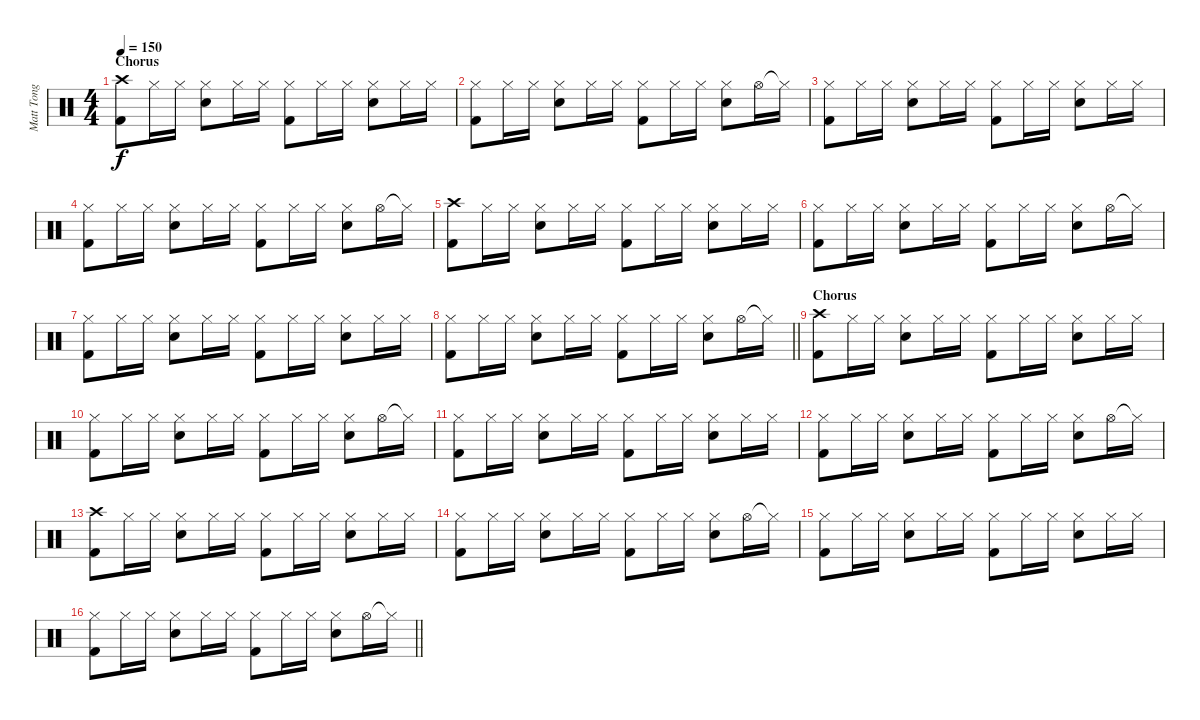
\track ("Matt Tong" "Matt Tong") {instrument percussion}
\staff {score}
\articulation defaults
\ts (4 4)
\section ("" "Chorus")
\tempo 150
\clef neutral
\ks c
("Crash high (hit)" "Kick (hit) 2").8{dy f} "Hi-Hat (closed)".16 "Hi-Hat (closed)".16 ("Hi-Hat (closed)" "Electric Snare (hit)").8 "Hi-Hat (closed)".16 "Hi-Hat (closed)".16 ("Hi-Hat (closed)" "Kick (hit) 2").8 "Hi-Hat (closed)".16 "Hi-Hat (closed)".16 ("Hi-Hat (closed)" "Electric Snare (hit)").8 "Hi-Hat (closed)".16 "Hi-Hat (closed)".16 |
("Hi-Hat (closed)" "Kick (hit) 2").8 "Hi-Hat (closed)".16 "Hi-Hat (closed)".16 ("Hi-Hat (closed)" "Electric Snare (hit)").8 "Hi-Hat (closed)".16 "Hi-Hat (closed)".16 ("Hi-Hat (closed)" "Kick (hit) 2").8 "Hi-Hat (closed)".16 "Hi-Hat (closed)".16 ("Hi-Hat (closed)" "Electric Snare (hit)").8 "Hi-Hat (open)".16 "Hi-Hat (closed)"{t}.16 |
("Hi-Hat (closed)" "Kick (hit) 2").8 "Hi-Hat (closed)".16 "Hi-Hat (closed)".16 ("Hi-Hat (closed)" "Electric Snare (hit)").8 "Hi-Hat (closed)".16 "Hi-Hat (closed)".16 ("Hi-Hat (closed)" "Kick (hit) 2").8 "Hi-Hat (closed)".16 "Hi-Hat (closed)".16 ("Hi-Hat (closed)" "Electric Snare (hit)").8 "Hi-Hat (closed)".16 "Hi-Hat (closed)".16 |
("Hi-Hat (closed)" "Kick (hit) 2").8 "Hi-Hat (closed)".16 "Hi-Hat (closed)".16 ("Hi-Hat (closed)" "Electric Snare (hit)").8 "Hi-Hat (closed)".16 "Hi-Hat (closed)".16 ("Hi-Hat (closed)" "Kick (hit) 2").8 "Hi-Hat (closed)".16 "Hi-Hat (closed)".16 ("Hi-Hat (closed)" "Electric Snare (hit)").8 "Hi-Hat (open)".16 "Hi-Hat (closed)"{t}.16 |
("Crash high (hit)" "Kick (hit) 2").8 "Hi-Hat (closed)".16 "Hi-Hat (closed)".16 ("Hi-Hat (closed)" "Electric Snare (hit)").8 "Hi-Hat (closed)".16 "Hi-Hat (closed)".16 ("Hi-Hat (closed)" "Kick (hit) 2").8 "Hi-Hat (closed)".16 "Hi-Hat (closed)".16 ("Hi-Hat (closed)" "Electric Snare (hit)").8 "Hi-Hat (closed)".16 "Hi-Hat (closed)".16 |
("Hi-Hat (closed)" "Kick (hit) 2").8 "Hi-Hat (closed)".16 "Hi-Hat (closed)".16 ("Hi-Hat (closed)" "Electric Snare (hit)").8 "Hi-Hat (closed)".16 "Hi-Hat (closed)".16 ("Hi-Hat (closed)" "Kick (hit) 2").8 "Hi-Hat (closed)".16 "Hi-Hat (closed)".16 ("Hi-Hat (closed)" "Electric Snare (hit)").8 "Hi-Hat (open)".16 "Hi-Hat (closed)"{t}.16 |
("Hi-Hat (closed)" "Kick (hit) 2").8 "Hi-Hat (closed)".16 "Hi-Hat (closed)".16 ("Hi-Hat (closed)" "Electric Snare (hit)").8 "Hi-Hat (closed)".16 "Hi-Hat (closed)".16 ("Hi-Hat (closed)" "Kick (hit) 2").8 "Hi-Hat (closed)".16 "Hi-Hat (closed)".16 ("Hi-Hat (closed)" "Electric Snare (hit)").8 "Hi-Hat (closed)".16 "Hi-Hat (closed)".16 |
\barLineRight lightlight
("Hi-Hat (closed)" "Kick (hit) 2").8 "Hi-Hat (closed)".16 "Hi-Hat (closed)".16 ("Hi-Hat (closed)" "Electric Snare (hit)").8 "Hi-Hat (closed)".16 "Hi-Hat (closed)".16 ("Hi-Hat (closed)" "Kick (hit) 2").8 "Hi-Hat (closed)".16 "Hi-Hat (closed)".16 ("Hi-Hat (closed)" "Electric Snare (hit)").8 "Hi-Hat (open)".16 "Hi-Hat (closed)"{t}.16 |
\section ("" "Chorus")
("Crash high (hit)" "Kick (hit) 2").8 "Hi-Hat (closed)".16 "Hi-Hat (closed)".16 ("Hi-Hat (closed)" "Electric Snare (hit)").8 "Hi-Hat (closed)".16 "Hi-Hat (closed)".16 ("Hi-Hat (closed)" "Kick (hit) 2").8 "Hi-Hat (closed)".16 "Hi-Hat (closed)".16 ("Hi-Hat (closed)" "Electric Snare (hit)").8 "Hi-Hat (closed)".16 "Hi-Hat (closed)".16 |
("Hi-Hat (closed)" "Kick (hit) 2").8 "Hi-Hat (closed)".16 "Hi-Hat (closed)".16 ("Hi-Hat (closed)" "Electric Snare (hit)").8 "Hi-Hat (closed)".16 "Hi-Hat (closed)".16 ("Hi-Hat (closed)" "Kick (hit) 2").8 "Hi-Hat (closed)".16 "Hi-Hat (closed)".16 ("Hi-Hat (closed)" "Electric Snare (hit)").8 "Hi-Hat (open)".16 "Hi-Hat (closed)"{t}.16 |
("Hi-Hat (closed)" "Kick (hit) 2").8 "Hi-Hat (closed)".16 "Hi-Hat (closed)".16 ("Hi-Hat (closed)" "Electric Snare (hit)").8 "Hi-Hat (closed)".16 "Hi-Hat (closed)".16 ("Hi-Hat (closed)" "Kick (hit) 2").8 "Hi-Hat (closed)".16 "Hi-Hat (closed)".16 ("Hi-Hat (closed)" "Electric Snare (hit)").8 "Hi-Hat (closed)".16 "Hi-Hat (closed)".16 |
("Hi-Hat (closed)" "Kick (hit) 2").8 "Hi-Hat (closed)".16 "Hi-Hat (closed)".16 ("Hi-Hat (closed)" "Electric Snare (hit)").8 "Hi-Hat (closed)".16 "Hi-Hat (closed)".16 ("Hi-Hat (closed)" "Kick (hit) 2").8 "Hi-Hat (closed)".16 "Hi-Hat (closed)".16 ("Hi-Hat (closed)" "Electric Snare (hit)").8 "Hi-Hat (open)".16 "Hi-Hat (closed)"{t}.16 |
("Crash high (hit)" "Kick (hit) 2").8 "Hi-Hat (closed)".16 "Hi-Hat (closed)".16 ("Hi-Hat (closed)" "Electric Snare (hit)").8 "Hi-Hat (closed)".16 "Hi-Hat (closed)".16 ("Hi-Hat (closed)" "Kick (hit) 2").8 "Hi-Hat (closed)".16 "Hi-Hat (closed)".16 ("Hi-Hat (closed)" "Electric Snare (hit)").8 "Hi-Hat (closed)".16 "Hi-Hat (closed)".16 |
("Hi-Hat (closed)" "Kick (hit) 2").8 "Hi-Hat (closed)".16 "Hi-Hat (closed)".16 ("Hi-Hat (closed)" "Electric Snare (hit)").8 "Hi-Hat (closed)".16 "Hi-Hat (closed)".16 ("Hi-Hat (closed)" "Kick (hit) 2").8 "Hi-Hat (closed)".16 "Hi-Hat (closed)".16 ("Hi-Hat (closed)" "Electric Snare (hit)").8 "Hi-Hat (open)".16 "Hi-Hat (closed)"{t}.16 |
("Hi-Hat (closed)" "Kick (hit) 2").8 "Hi-Hat (closed)".16 "Hi-Hat (closed)".16 ("Hi-Hat (closed)" "Electric Snare (hit)").8 "Hi-Hat (closed)".16 "Hi-Hat (closed)".16 ("Hi-Hat (closed)" "Kick (hit) 2").8 "Hi-Hat (closed)".16 "Hi-Hat (closed)".16 ("Hi-Hat (closed)" "Electric Snare (hit)").8 "Hi-Hat (closed)".16 "Hi-Hat (closed)".16 |
\barLineRight lightlight
("Hi-Hat (closed)" "Kick (hit) 2").8 "Hi-Hat (closed)".16 "Hi-Hat (closed)".16 ("Hi-Hat (closed)" "Electric Snare (hit)").8 "Hi-Hat (closed)".16 "Hi-Hat (closed)".16 ("Hi-Hat (closed)" "Kick (hit) 2").8 "Hi-Hat (closed)".16 "Hi-Hat (closed)".16 ("Hi-Hat (closed)" "Electric Snare (hit)").8 "Hi-Hat (open)".16 "Hi-Hat (closed)"{t}.16
